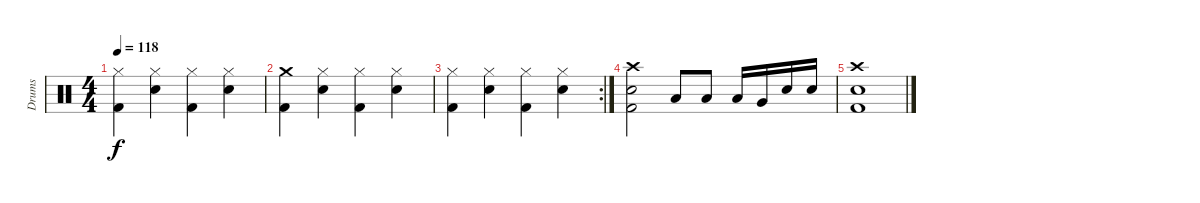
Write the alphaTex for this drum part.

\track ("Drums" "Drums") {instrument percussion}
\staff {score}
\articulation defaults
\ts (4 4)
\tempo 118
\clef neutral
\ks c
("Hi-Hat (closed)" "Kick (hit) 2").4{dy f} ("Hi-Hat (closed)" "Electric Snare (hit)").4 ("Hi-Hat (closed)" "Kick (hit) 2").4 ("Hi-Hat (closed)" "Electric Snare (hit)").4 |
("Crash medium (hit)" "Kick (hit) 2").4 ("Hi-Hat (closed)" "Electric Snare (hit)").4 ("Hi-Hat (closed)" "Kick (hit) 2").4 ("Hi-Hat (closed)" "Electric Snare (hit)").4 |
\rc 2
("Hi-Hat (closed)" "Kick (hit) 2").4 ("Hi-Hat (closed)" "Electric Snare (hit)").4 ("Hi-Hat (closed)" "Kick (hit) 2").4 ("Hi-Hat (closed)" "Electric Snare (hit)").4 |
("Crash high (hit)" "Kick (hit) 2" "Electric Snare (hit)").2 "Low Floor Tom (hit)".8 "Low Floor Tom (hit)".8 "Low Floor Tom (hit)".16 "Very Low Tom (hit)".16 "Electric Snare (hit)".16 "Electric Snare (hit)".16 |
("Crash high (hit)" "Kick (hit) 2" "Electric Snare (hit)").1
